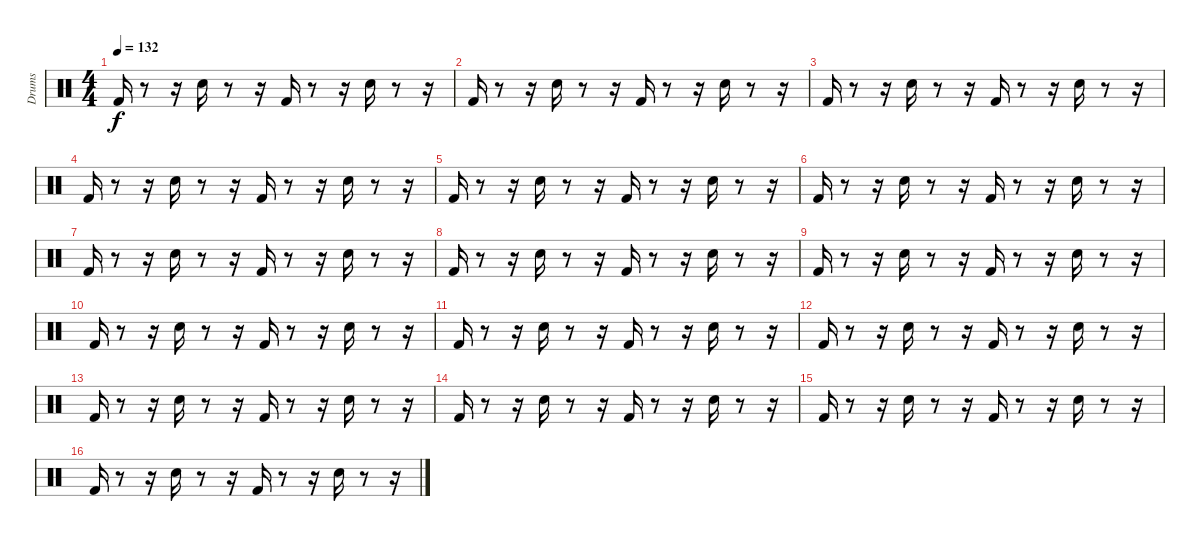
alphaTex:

\track ("Drums" "Drums") {instrument percussion}
\staff {score}
\articulation defaults
\ts (4 4)
\tempo 132
\clef neutral
\ks c "Kick (hit) 2".16{dy f}
r.8 r.16 "Snare (hit) 2".16 r.8 r.16 "Kick (hit) 2".16 r.8 r.16 "Snare (hit) 2".16 r.8 r.16 |
"Kick (hit) 2".16 r.8 r.16 "Snare (hit) 2".16 r.8 r.16 "Kick (hit) 2".16 r.8 r.16 "Snare (hit) 2".16 r.8 r.16 |
"Kick (hit) 2".16 r.8 r.16 "Snare (hit) 2".16 r.8 r.16 "Kick (hit) 2".16 r.8 r.16 "Snare (hit) 2".16 r.8 r.16 |
"Kick (hit) 2".16 r.8 r.16 "Snare (hit) 2".16 r.8 r.16 "Kick (hit) 2".16 r.8 r.16 "Snare (hit) 2".16 r.8 r.16 |
"Kick (hit) 2".16 r.8 r.16 "Snare (hit) 2".16 r.8 r.16 "Kick (hit) 2".16 r.8 r.16 "Snare (hit) 2".16 r.8 r.16 |
"Kick (hit) 2".16 r.8 r.16 "Snare (hit) 2".16 r.8 r.16 "Kick (hit) 2".16 r.8 r.16 "Snare (hit) 2".16 r.8 r.16 |
"Kick (hit) 2".16 r.8 r.16 "Snare (hit) 2".16 r.8 r.16 "Kick (hit) 2".16 r.8 r.16 "Snare (hit) 2".16 r.8 r.16 |
"Kick (hit) 2".16 r.8 r.16 "Snare (hit) 2".16 r.8 r.16 "Kick (hit) 2".16 r.8 r.16 "Snare (hit) 2".16 r.8 r.16 |
"Kick (hit) 2".16 r.8 r.16 "Snare (hit) 2".16 r.8 r.16 "Kick (hit) 2".16 r.8 r.16 "Snare (hit) 2".16 r.8 r.16 |
"Kick (hit) 2".16 r.8 r.16 "Snare (hit) 2".16 r.8 r.16 "Kick (hit) 2".16 r.8 r.16 "Snare (hit) 2".16 r.8 r.16 |
"Kick (hit) 2".16 r.8 r.16 "Snare (hit) 2".16 r.8 r.16 "Kick (hit) 2".16 r.8 r.16 "Snare (hit) 2".16 r.8 r.16 |
"Kick (hit) 2".16 r.8 r.16 "Snare (hit) 2".16 r.8 r.16 "Kick (hit) 2".16 r.8 r.16 "Snare (hit) 2".16 r.8 r.16 |
"Kick (hit) 2".16 r.8 r.16 "Snare (hit) 2".16 r.8 r.16 "Kick (hit) 2".16 r.8 r.16 "Snare (hit) 2".16 r.8 r.16 |
"Kick (hit) 2".16 r.8 r.16 "Snare (hit) 2".16 r.8 r.16 "Kick (hit) 2".16 r.8 r.16 "Snare (hit) 2".16 r.8 r.16 |
"Kick (hit) 2".16 r.8 r.16 "Snare (hit) 2".16 r.8 r.16 "Kick (hit) 2".16 r.8 r.16 "Snare (hit) 2".16 r.8 r.16 |
"Kick (hit) 2".16 r.8 r.16 "Snare (hit) 2".16 r.8 r.16 "Kick (hit) 2".16 r.8 r.16 "Snare (hit) 2".16 r.8 r.16
